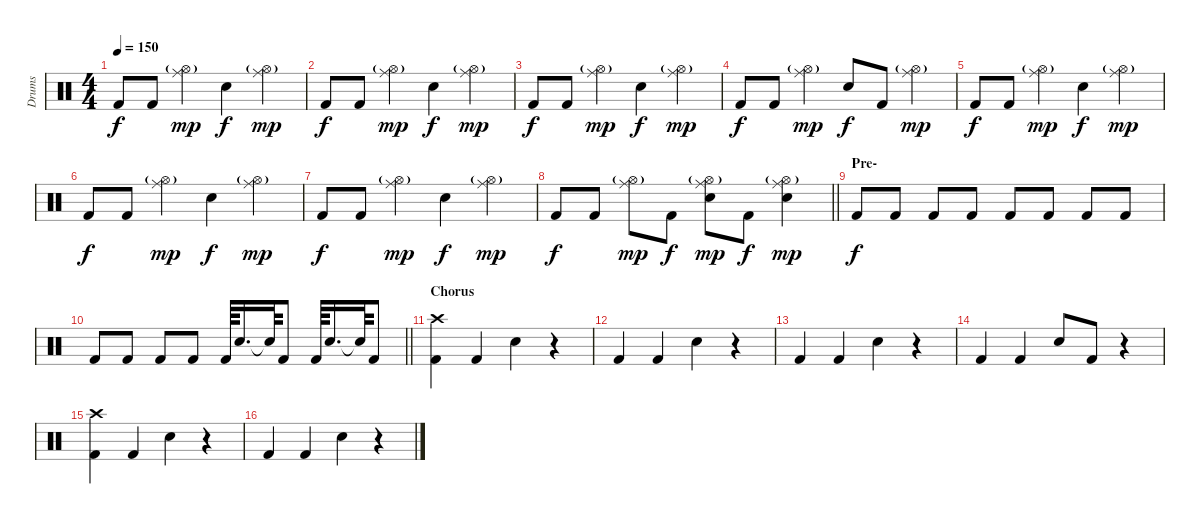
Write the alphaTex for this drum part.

\track ("Drums" "Drums") {instrument percussion bank 1}
\staff {score}
\articulation defaults
\ts (4 4)
\tempo 150
\clef neutral
\ks c "Kick (hit) 2".8{dy f} "Kick (hit) 2".8
("Ride (middle)" "Hi-Hat (open)"{g}).4{dy mp} "Snare (hit) 2".4{dy f} ("Ride (middle)" "Hi-Hat (open)"{g}).4{dy mp} |
"Kick (hit) 2".8{dy f} "Kick (hit) 2".8 ("Ride (middle)" "Hi-Hat (open)"{g}).4{dy mp} "Snare (hit) 2".4{dy f} ("Ride (middle)" "Hi-Hat (open)"{g}).4{dy mp} |
"Kick (hit) 2".8{dy f} "Kick (hit) 2".8 ("Ride (middle)" "Hi-Hat (open)"{g}).4{dy mp} "Snare (hit) 2".4{dy f} ("Ride (middle)" "Hi-Hat (open)"{g}).4{dy mp} |
"Kick (hit) 2".8{dy f} "Kick (hit) 2".8 ("Ride (middle)" "Hi-Hat (open)"{g}).4{dy mp} "Snare (hit) 2".8{dy f} "Kick (hit) 2".8 ("Ride (middle)" "Hi-Hat (open)"{g}).4{dy mp} |
"Kick (hit) 2".8{dy f} "Kick (hit) 2".8 ("Ride (middle)" "Hi-Hat (open)"{g}).4{dy mp} "Snare (hit) 2".4{dy f} ("Ride (middle)" "Hi-Hat (open)"{g}).4{dy mp} |
"Kick (hit) 2".8{dy f} "Kick (hit) 2".8 ("Ride (middle)" "Hi-Hat (open)"{g}).4{dy mp} "Snare (hit) 2".4{dy f} ("Ride (middle)" "Hi-Hat (open)"{g}).4{dy mp} |
"Kick (hit) 2".8{dy f} "Kick (hit) 2".8 ("Ride (middle)" "Hi-Hat (open)"{g}).4{dy mp} "Snare (hit) 2".4{dy f} ("Ride (middle)" "Hi-Hat (open)"{g}).4{dy mp} |
\barLineRight lightlight "Kick (hit) 2".8{dy f} "Kick (hit) 2".8
("Ride (middle)" "Hi-Hat (open)"{g}).8{dy mp} "Kick (hit) 2".8{dy f} ("Ride (middle)" "Snare (hit) 2" "Hi-Hat (open)"{g}).8{dy mp} "Kick (hit) 2".8{dy f} ("Ride (middle)" "Snare (hit) 2" "Hi-Hat (open)"{g}).4{dy mp} |
\section ("" "Pre-")
"Kick (hit) 2".8{dy f} "Kick (hit) 2".8 "Kick (hit) 2".8 "Kick (hit) 2".8 "Kick (hit) 2".8 "Kick (hit) 2".8 "Kick (hit) 2".8 "Kick (hit) 2".8 |
\barLineRight lightlight "Kick (hit) 2".8 "Kick (hit) 2".8 "Kick (hit) 2".8 "Kick (hit) 2".8 "Kick (hit) 2".64 "Snare (hit) 2".16{d} "Snare (hit)"{t}.64 "Kick (hit) 2".8 "Kick (hit) 2".64 "Snare (hit) 2".16{d} "Snare (hit)"{t}.64 "Kick (hit) 2".8
|
\section ("" "Chorus")
("Crash high (hit)" "Kick (hit) 2").4 "Kick (hit) 2".4 "Snare (hit) 2".4 r.4 |
"Kick (hit) 2".4 "Kick (hit) 2".4 "Snare (hit) 2".4 r.4 |
"Kick (hit) 2".4 "Kick (hit) 2".4 "Snare (hit) 2".4 r.4 |
"Kick (hit) 2".4 "Kick (hit) 2".4 "Snare (hit) 2".8 "Kick (hit) 2".8 r.4 |
("Crash high (hit)" "Kick (hit) 2").4 "Kick (hit) 2".4 "Snare (hit) 2".4 r.4 |
"Kick (hit) 2".4 "Kick (hit) 2".4 "Snare (hit) 2".4 r.4
